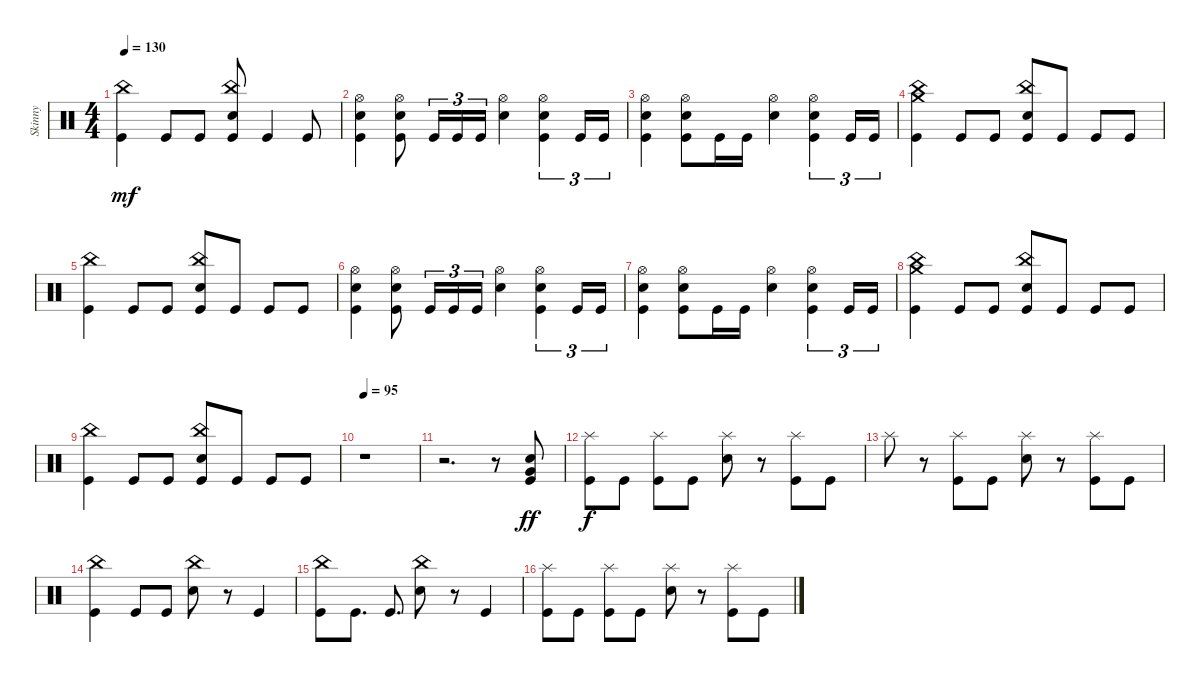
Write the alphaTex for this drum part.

\track ("Skinny" "Skinny") {instrument percussion}
\staff {score}
\articulation defaults
\ts (4 4)
\tempo 130
\clef neutral
\ks c
("Kick (hit)" "China (hit)").4{dy mf} "Kick (hit)".8 "Kick (hit)".8 ("Kick (hit)" "China (hit)" "Snare (hit) 2").8 "Kick (hit)".4 "Kick (hit)".8 |
("Hi-Hat (open)" "Kick (hit)" "Snare (hit) 2").4 ("Hi-Hat (open)" "Kick (hit)" "Snare (hit) 2").8 "Kick (hit)".16{tu (3 2)} "Kick (hit)".16{tu (3 2)} "Kick (hit)".16{tu (3 2)} ("Hi-Hat (open)" "Snare (hit) 2").4 ("Hi-Hat (open)" "Kick (hit)" "Snare (hit) 2").4{tu (3 2)} "Kick (hit)".16{tu (3 2)} "Kick (hit)".16{tu (3 2)} |
("Hi-Hat (open)" "Kick (hit)" "Snare (hit) 2").4 ("Hi-Hat (open)" "Kick (hit)" "Snare (hit) 2").8 "Kick (hit)".16 "Kick (hit)".16 ("Hi-Hat (open)" "Snare (hit) 2").4 ("Hi-Hat (open)" "Kick (hit)" "Snare (hit) 2").4{tu (3 2)} "Kick (hit)".16{tu (3 2)} "Kick (hit)".16{tu (3 2)} |
("Kick (hit)" "China (hit)" "Crash medium (hit)").4 "Kick (hit)".8 "Kick (hit)".8 ("Kick (hit)" "China (hit)" "Snare (hit) 2").8 "Kick (hit)".8 "Kick (hit)".8 "Kick (hit)".8 |
("Kick (hit)" "China (hit)").4 "Kick (hit)".8 "Kick (hit)".8 ("Kick (hit)" "China (hit)" "Snare (hit) 2").8 "Kick (hit)".8 "Kick (hit)".8 "Kick (hit)".8 |
("Hi-Hat (open)" "Kick (hit)" "Snare (hit) 2").4 ("Hi-Hat (open)" "Kick (hit)" "Snare (hit) 2").8 "Kick (hit)".16{tu (3 2)} "Kick (hit)".16{tu (3 2)} "Kick (hit)".16{tu (3 2)} ("Hi-Hat (open)" "Snare (hit) 2").4 ("Hi-Hat (open)" "Kick (hit)" "Snare (hit) 2").4{tu (3 2)} "Kick (hit)".16{tu (3 2)} "Kick (hit)".16{tu (3 2)} |
("Hi-Hat (open)" "Kick (hit)" "Snare (hit) 2").4 ("Hi-Hat (open)" "Kick (hit)" "Snare (hit) 2").8 "Kick (hit)".16 "Kick (hit)".16 ("Hi-Hat (open)" "Snare (hit) 2").4 ("Hi-Hat (open)" "Kick (hit)" "Snare (hit) 2").4{tu (3 2)} "Kick (hit)".16{tu (3 2)} "Kick (hit)".16{tu (3 2)} |
("Kick (hit)" "China (hit)" "Crash medium (hit)").4 "Kick (hit)".8 "Kick (hit)".8 ("Kick (hit)" "China (hit)" "Snare (hit) 2").8 "Kick (hit)".8 "Kick (hit)".8 "Kick (hit)".8 |
("Kick (hit)" "China (hit)").4 "Kick (hit)".8 "Kick (hit)".8 ("Kick (hit)" "China (hit)" "Snare (hit) 2").8 "Kick (hit)".8 "Kick (hit)".8 "Kick (hit)".8 |
\tempo 95
r.1 |
r.2{d} r.8 ("Snare (hit) 2" "Kick (hit)" "Very Low Tom (hit)").8{dy ff} |
("Kick (hit)" "Splash (hit)").8{dy f} "Kick (hit)".8 ("Kick (hit)" "Splash (hit)").8 "Kick (hit)".8 ("Snare (hit) 2" "Splash (hit)").8 r.8 ("Kick (hit)" "Splash (hit)").8 "Kick (hit)".8 |
"Splash (hit)".8 r.8 ("Kick (hit)" "Splash (hit)").8 "Kick (hit)".8 ("Snare (hit) 2" "Splash (hit)").8 r.8 ("Kick (hit)" "Splash (hit)").8 "Kick (hit)".8 |
("Kick (hit)" "China (hit)").4 "Kick (hit)".8 "Kick (hit)".8 ("China (hit)" "Snare (hit) 2").8 r.8 "Kick (hit)".4 |
("Kick (hit)" "China (hit)").8 "Kick (hit)".8{d} "Kick (hit)".8{d} ("Snare (hit) 2" "China (hit)").8 r.8 "Kick (hit)".4 |
("Kick (hit)" "Splash (hit)").8 "Kick (hit)".8 ("Kick (hit)" "Splash (hit)").8 "Kick (hit)".8 ("Snare (hit) 2" "Splash (hit)").8 r.8 ("Kick (hit)" "Splash (hit)").8 "Kick (hit)".8
